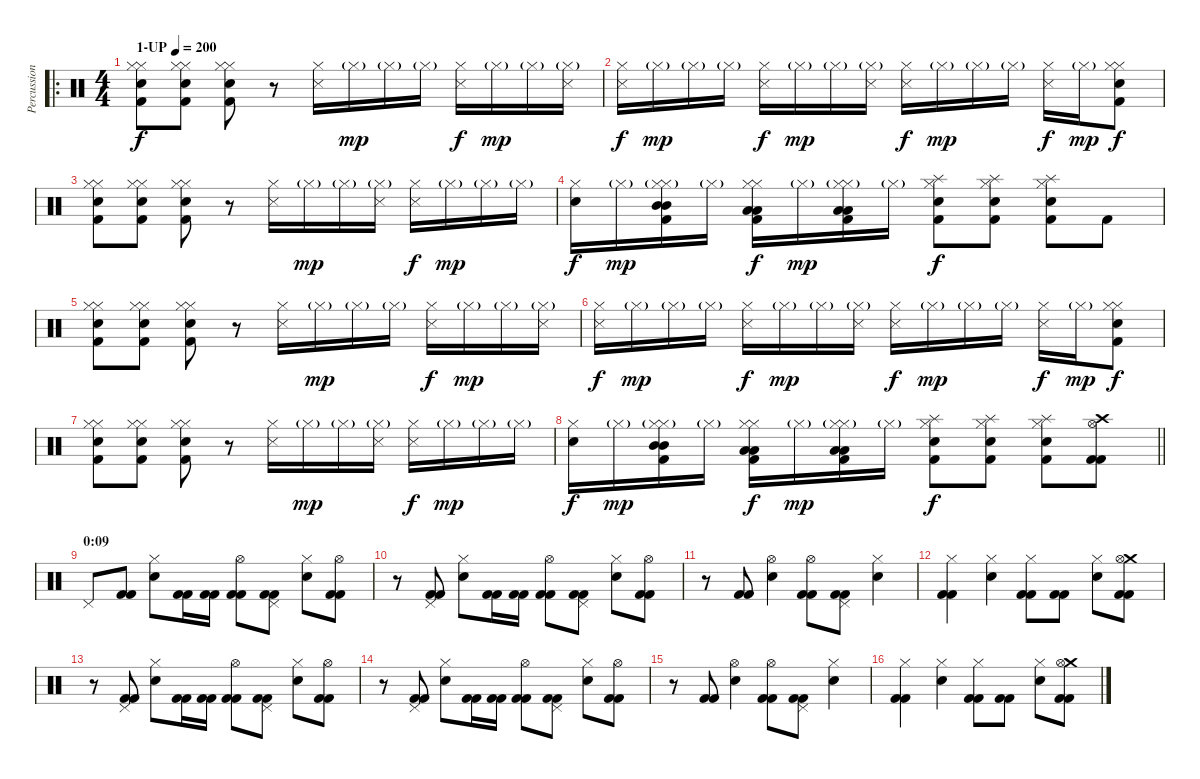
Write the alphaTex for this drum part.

\track ("Percussion" "Percussion") {instrument percussion}
\staff {score}
\articulation defaults
\ro
\ts (4 4)
\tempo (200 "1-UP")
\clef neutral
\ks c
("Hi-Hat (closed)" "Snare (hit) 2" "Hi-Hat (closed)" "Kick (hit) 2").8{dy f} ("Hi-Hat (closed)" "Snare (hit) 2" "Hi-Hat (closed)" "Kick (hit) 2").8 ("Hi-Hat (closed)" "Snare (hit) 2" "Hi-Hat (closed)" "Kick (hit) 2").8 r.8 ("Hi-Hat (closed)" "Metronome (hit)").16 "Hi-Hat (closed)"{g}.16{dy mp} "Hi-Hat (closed)"{g}.16 "Hi-Hat (closed)"{g}.16 ("Hi-Hat (closed)" "Metronome (hit)").16{dy f} "Hi-Hat (closed)"{g}.16{dy mp} "Hi-Hat (closed)"{g}.16 ("Hi-Hat (closed)"{g} "Metronome (hit)").16 |
("Hi-Hat (closed)" "Metronome (hit)").16{dy f} "Hi-Hat (closed)"{g}.16{dy mp} "Hi-Hat (closed)"{g}.16 "Hi-Hat (closed)"{g}.16 ("Hi-Hat (closed)" "Metronome (hit)").16{dy f} "Hi-Hat (closed)"{g}.16{dy mp} "Hi-Hat (closed)"{g}.16 ("Hi-Hat (closed)"{g} "Metronome (hit)").16 ("Hi-Hat (closed)" "Metronome (hit)").16{dy f} "Hi-Hat (closed)"{g}.16{dy mp} "Hi-Hat (closed)"{g}.16 "Hi-Hat (closed)"{g}.16 ("Hi-Hat (closed)" "Metronome (hit)").16{dy f} "Hi-Hat (closed)"{g}.16{dy mp} ("Hi-Hat (closed)" "Snare (hit) 2" "Hi-Hat (closed)" "Kick (hit) 2").8{dy f} |
("Hi-Hat (closed)" "Snare (hit) 2" "Hi-Hat (closed)" "Kick (hit) 2").8 ("Hi-Hat (closed)" "Snare (hit) 2" "Hi-Hat (closed)" "Kick (hit) 2").8 ("Hi-Hat (closed)" "Snare (hit) 2" "Hi-Hat (closed)" "Kick (hit) 2").8 r.8 ("Hi-Hat (closed)" "Metronome (hit)").16 "Hi-Hat (closed)"{g}.16{dy mp} "Hi-Hat (closed)"{g}.16 ("Hi-Hat (closed)"{g} "Metronome (hit)").16 ("Hi-Hat (closed)" "Metronome (hit)").16{dy f} "Hi-Hat (closed)"{g}.16{dy mp} "Hi-Hat (closed)"{g}.16 "Hi-Hat (closed)"{g}.16 |
("Hi-Hat (closed)" "Snare (hit) 2").16{dy f} "Hi-Hat (closed)"{g}.16{dy mp} ("Mid Tom (hit)" "Mid Tom (hit)" "Hi-Hat (closed)"{g} "Hi-Hat (closed)" "Kick (hit) 2").16 "Hi-Hat (closed)"{g}.16 ("Low Tom (hit)" "Hi-Hat (closed)" "Low Tom (hit)" "Hi-Hat (closed)" "Kick (hit) 2").16{dy f} "Hi-Hat (closed)"{g}.16{dy mp} ("Low Tom (hit)" "Hi-Hat (closed)"{g} "Low Tom (hit)" "Hi-Hat (closed)" "Kick (hit) 2").16 "Hi-Hat (closed)"{g}.16 ("Splash (hit)" "Snare (hit) 2" "Hi-Hat (closed)" "Kick (hit) 2").8{dy f} ("Splash (hit)" "Snare (hit) 2" "Hi-Hat (closed)" "Kick (hit) 2").8 ("Splash (hit)" "Snare (hit) 2" "Hi-Hat (closed)" "Kick (hit) 2").8 "Kick (hit) 2".8 |
("Hi-Hat (closed)" "Snare (hit) 2" "Hi-Hat (closed)" "Kick (hit) 2").8 ("Hi-Hat (closed)" "Snare (hit) 2" "Hi-Hat (closed)" "Kick (hit) 2").8 ("Hi-Hat (closed)" "Snare (hit) 2" "Hi-Hat (closed)" "Kick (hit) 2").8 r.8 ("Hi-Hat (closed)" "Metronome (hit)").16 "Hi-Hat (closed)"{g}.16{dy mp} "Hi-Hat (closed)"{g}.16 "Hi-Hat (closed)"{g}.16 ("Hi-Hat (closed)" "Metronome (hit)").16{dy f} "Hi-Hat (closed)"{g}.16{dy mp} "Hi-Hat (closed)"{g}.16 ("Hi-Hat (closed)"{g} "Metronome (hit)").16 |
("Hi-Hat (closed)" "Metronome (hit)").16{dy f} "Hi-Hat (closed)"{g}.16{dy mp} "Hi-Hat (closed)"{g}.16 "Hi-Hat (closed)"{g}.16 ("Hi-Hat (closed)" "Metronome (hit)").16{dy f} "Hi-Hat (closed)"{g}.16{dy mp} "Hi-Hat (closed)"{g}.16 ("Hi-Hat (closed)"{g} "Metronome (hit)").16 ("Hi-Hat (closed)" "Metronome (hit)").16{dy f} "Hi-Hat (closed)"{g}.16{dy mp} "Hi-Hat (closed)"{g}.16 "Hi-Hat (closed)"{g}.16 ("Hi-Hat (closed)" "Metronome (hit)").16{dy f} "Hi-Hat (closed)"{g}.16{dy mp} ("Hi-Hat (closed)" "Snare (hit) 2" "Hi-Hat (closed)" "Kick (hit) 2").8{dy f} |
("Hi-Hat (closed)" "Snare (hit) 2" "Hi-Hat (closed)" "Kick (hit) 2").8 ("Hi-Hat (closed)" "Snare (hit) 2" "Hi-Hat (closed)" "Kick (hit) 2").8 ("Hi-Hat (closed)" "Snare (hit) 2" "Hi-Hat (closed)" "Kick (hit) 2").8 r.8 ("Hi-Hat (closed)" "Metronome (hit)").16 "Hi-Hat (closed)"{g}.16{dy mp} "Hi-Hat (closed)"{g}.16 ("Hi-Hat (closed)"{g} "Metronome (hit)").16 ("Hi-Hat (closed)" "Metronome (hit)").16{dy f} "Hi-Hat (closed)"{g}.16{dy mp} "Hi-Hat (closed)"{g}.16 "Hi-Hat (closed)"{g}.16 |
\barLineRight lightlight
("Hi-Hat (closed)" "Snare (hit) 2").16{dy f} "Hi-Hat (closed)"{g}.16{dy mp} ("Mid Tom (hit)" "Mid Tom (hit)" "Hi-Hat (closed)"{g} "Hi-Hat (closed)" "Kick (hit) 2").16 "Hi-Hat (closed)"{g}.16 ("Low Tom (hit)" "Hi-Hat (closed)" "Low Tom (hit)" "Hi-Hat (closed)" "Kick (hit) 2").16{dy f} "Hi-Hat (closed)"{g}.16{dy mp} ("Low Tom (hit)" "Hi-Hat (closed)"{g} "Low Tom (hit)" "Hi-Hat (closed)" "Kick (hit) 2").16 "Hi-Hat (closed)"{g}.16 ("Splash (hit)" "Snare (hit) 2" "Hi-Hat (closed)" "Kick (hit) 2").8{dy f} ("Splash (hit)" "Snare (hit) 2" "Hi-Hat (closed)" "Kick (hit) 2").8 ("Splash (hit)" "Snare (hit) 2" "Hi-Hat (closed)" "Kick (hit) 2").8 ("Crash high (hit)" "Hi-Hat (open)" "Kick (hit) 2" "Kick (hit) 2").8 |
\section ("" "0:09")
"Pedal Hi-Hat (hit)".8 ("Kick (hit) 2" "Kick (hit) 2").8 ("Hi-Hat (closed)" "Snare (hit) 2").8 ("Kick (hit) 2" "Kick (hit) 2").16 ("Kick (hit) 2" "Kick (hit) 2").16 ("Hi-Hat (open)" "Kick (hit) 2" "Kick (hit) 2").8 ("Pedal Hi-Hat (hit)" "Kick (hit) 2" "Kick (hit) 2").8 ("Hi-Hat (closed)" "Snare (hit) 2").8 ("Hi-Hat (open)" "Kick (hit) 2" "Kick (hit) 2").8 |
r.8 ("Pedal Hi-Hat (hit)" "Kick (hit) 2" "Kick (hit) 2").8 ("Hi-Hat (closed)" "Snare (hit) 2").8 ("Kick (hit) 2" "Kick (hit) 2").16 ("Kick (hit) 2" "Kick (hit) 2").16 ("Hi-Hat (open)" "Kick (hit) 2" "Kick (hit) 2").8 ("Pedal Hi-Hat (hit)" "Kick (hit) 2" "Kick (hit) 2").8 ("Hi-Hat (closed)" "Snare (hit) 2").8 ("Hi-Hat (open)" "Kick (hit) 2" "Kick (hit) 2").8 |
r.8 ("Kick (hit) 2" "Kick (hit) 2").8 ("Hi-Hat (open)" "Snare (hit) 2").4 ("Hi-Hat (open)" "Kick (hit) 2" "Kick (hit) 2").8 ("Pedal Hi-Hat (hit)" "Kick (hit) 2" "Kick (hit) 2").8 ("Hi-Hat (closed)" "Snare (hit) 2").4 |
("Hi-Hat (closed)" "Kick (hit) 2" "Kick (hit) 2").4 ("Hi-Hat (closed)" "Snare (hit) 2").4 ("Hi-Hat (closed)" "Kick (hit) 2" "Kick (hit) 2").8 ("Kick (hit) 2" "Kick (hit) 2").8 ("Hi-Hat (closed)" "Snare (hit) 2").8 ("Crash medium (hit)" "Hi-Hat (open)" "Kick (hit) 2" "Kick (hit) 2").8 |
r.8 ("Pedal Hi-Hat (hit)" "Kick (hit) 2" "Kick (hit) 2").8 ("Hi-Hat (closed)" "Snare (hit) 2").8 ("Kick (hit) 2" "Kick (hit) 2").16 ("Kick (hit) 2" "Kick (hit) 2").16 ("Hi-Hat (open)" "Kick (hit) 2" "Kick (hit) 2").8 ("Pedal Hi-Hat (hit)" "Kick (hit) 2" "Kick (hit) 2").8 ("Hi-Hat (closed)" "Snare (hit) 2").8 ("Hi-Hat (open)" "Kick (hit) 2" "Kick (hit) 2").8 |
r.8 ("Pedal Hi-Hat (hit)" "Kick (hit) 2" "Kick (hit) 2").8 ("Hi-Hat (closed)" "Snare (hit) 2").8 ("Kick (hit) 2" "Kick (hit) 2").16 ("Kick (hit) 2" "Kick (hit) 2").16 ("Hi-Hat (open)" "Kick (hit) 2" "Kick (hit) 2").8 ("Pedal Hi-Hat (hit)" "Kick (hit) 2" "Kick (hit) 2").8 ("Hi-Hat (closed)" "Snare (hit) 2").8 ("Hi-Hat (open)" "Kick (hit) 2" "Kick (hit) 2").8 |
r.8 ("Kick (hit) 2" "Kick (hit) 2").8 ("Hi-Hat (open)" "Snare (hit) 2").4 ("Hi-Hat (open)" "Kick (hit) 2" "Kick (hit) 2").8 ("Pedal Hi-Hat (hit)" "Kick (hit) 2" "Kick (hit) 2").8 ("Hi-Hat (closed)" "Snare (hit) 2").4 |
("Hi-Hat (closed)" "Kick (hit) 2" "Kick (hit) 2").4 ("Hi-Hat (closed)" "Snare (hit) 2").4 ("Hi-Hat (closed)" "Kick (hit) 2" "Kick (hit) 2").8 ("Kick (hit) 2" "Kick (hit) 2").8 ("Hi-Hat (closed)" "Snare (hit) 2").8 ("Crash medium (hit)" "Hi-Hat (open)" "Kick (hit) 2" "Kick (hit) 2").8
